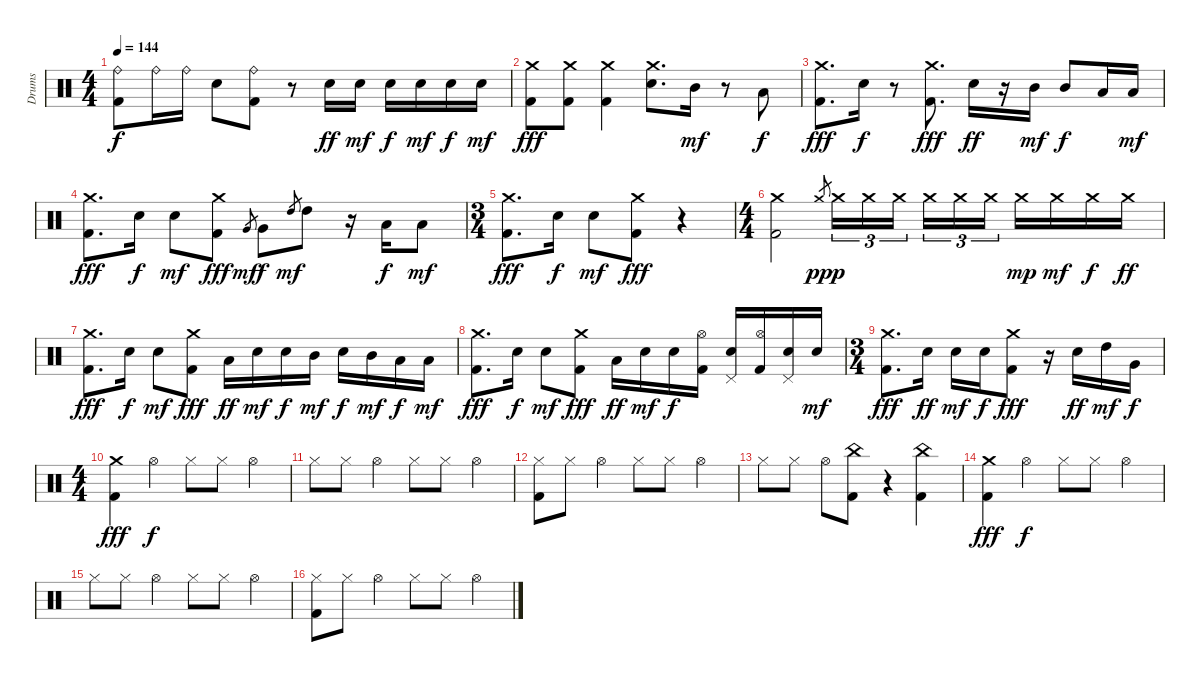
\bracketExtendMode groupsimilarinstruments
\otherSystemsTrackNameOrientation horizontal
\track ("Drumkit" "Drums") {instrument percussion}
\staff {score}
\articulation defaults
\ts (4 4)
\tempo 144
\clef neutral
\ks c
("Ride (bell)" "Kick (hit) 2").8{dy f beam Down} "Ride (bell)".16{beam Down} "Ride (bell)".16{beam Down} "Snare (hit) 2".8{beam Down} ("Ride (bell)" "Kick (hit) 2").8{beam Down} r.8{beam Down} "Snare (hit) 2".16{dy ff beam Down} "Snare (hit) 2".16{dy mf beam Down} "Snare (hit) 2".16{dy f beam Down} "Snare (hit) 2".16{dy mf beam Down} "Snare (hit) 2".16{dy f beam Down} "Snare (hit) 2".16{dy mf beam Down} |
("Crash medium (hit)" "Kick (hit) 2").8{dy fff beam Down} ("Crash medium (hit)" "Kick (hit) 2").8{beam Down} ("Crash medium (hit)" "Kick (hit) 2").4{beam Down} ("Crash medium (hit)" "Snare (hit) 2").8{d beam Down} "Mid Tom (hit)".16{dy mf beam Down} r.8{beam Down} "Low Tom (hit)".8{dy f beam Up} |
("Crash medium (hit)" "Kick (hit) 2").8{d dy fff beam Down} "Snare (hit) 2".16{dy f beam Down} r.8{beam Down} ("Crash medium (hit)" "Kick (hit) 2").8{d dy fff beam Down} "Snare (hit) 2".16{dy ff beam Down} r.16{beam Down} "Mid Tom (hit)".16{dy mf beam Down} "Mid Tom (hit)".8{dy f beam Up} "Low Tom (hit)".16{beam Up} "Low Tom (hit)".16{dy mf beam Up} |
("Crash medium (hit)" "Kick (hit) 2").8{d dy fff beam Down} "Snare (hit) 2".16{dy f beam Down} "Snare (hit) 2".8{dy mf beam Down} ("Crash medium (hit)" "Kick (hit) 2").8{dy fff beam Down} "Very Low Tom (hit)".8{gr dy mf beam Up} "Very Low Tom (hit)".8{dy f beam Down} "High Tom (hit)".8{gr dy mf beam Up} "High Tom (hit)".8{beam Down} r.16{beam Down} "Low Tom (hit)".16{dy f beam Up} "Low Tom (hit)".8{dy mf beam Up} |
\ts (3 4)
("Crash medium (hit)" "Kick (hit) 2").8{d dy fff beam Down} "Snare (hit) 2".16{dy f beam Down} "Snare (hit) 2".8{dy mf beam Down} ("Crash medium (hit)" "Kick (hit) 2").8{dy fff beam Down} r.4{beam Down} |
\ts (4 4)
("Crash medium (hit)" "Kick (hit) 2").2{beam Down} "Crash medium (hit)".8{gr dy pp beam Up} "Crash medium (hit)".16{tu (3 2) dy p beam Down} "Crash medium (hit)".16{tu (3 2) beam Down} "Crash medium (hit)".16{tu (3 2) beam Down} "Crash medium (hit)".16{tu (3 2) beam Down} "Crash medium (hit)".16{tu (3 2) beam Down} "Crash medium (hit)".16{tu (3 2) beam Down} "Crash medium (hit)".16{dy mp beam Down} "Crash medium (hit)".16{dy mf beam Down} "Crash medium (hit)".16{dy f beam Down} "Crash medium (hit)".16{dy ff beam Down} |
("Crash medium (hit)" "Kick (hit) 2").8{d dy fff beam Down} "Snare (hit) 2".16{dy f beam Down} "Snare (hit) 2".8{dy mf beam Down} ("Crash medium (hit)" "Kick (hit) 2").8{dy fff beam Down} "Low Tom (hit)".16{dy ff beam Down} "Snare (hit) 2".16{dy mf beam Down} "Snare (hit) 2".16{dy f beam Down} "Mid Tom (hit)".16{dy mf beam Down} "Snare (hit) 2".16{dy f beam Down} "Mid Tom (hit)".16{dy mf beam Down} "Low Tom (hit)".16{dy f beam Down} "Low Tom (hit)".16{dy mf beam Down} |
("Crash medium (hit)" "Kick (hit) 2").8{d dy fff beam Down} "Snare (hit) 2".16{dy f beam Down} "Snare (hit) 2".8{dy mf beam Down} ("Crash medium (hit)" "Kick (hit) 2").8{dy fff beam Down} "Low Tom (hit)".16{dy ff beam Down} "Snare (hit) 2".16{dy mf beam Down} "Snare (hit) 2".16{dy f beam Down} ("Hi-Hat (open)" "Kick (hit) 2").16{beam Down} ("Pedal Hi-Hat (hit)" "Snare (hit) 2").16{beam Up} ("Hi-Hat (open)" "Kick (hit) 2").16{beam Up} ("Pedal Hi-Hat (hit)" "Snare (hit) 2").16{beam Up} "Snare (hit) 2".16{dy mf beam Up} |
\ts (3 4)
("Crash medium (hit)" "Kick (hit) 2").8{d dy fff beam Down} "Snare (hit) 2".16{dy ff beam Down} "Snare (hit) 2".16{dy mf beam Down} "Snare (hit) 2".16{dy f beam Down} ("Crash medium (hit)" "Kick (hit) 2").8{dy fff beam Down} r.16{beam Down} "Snare (hit) 2".16{dy ff beam Down} "High Tom (hit)".16{dy mf beam Down} "Very Low Tom (hit)".16{dy f beam Down} |
\ts (4 4)
("Crash medium (hit)" "Kick (hit) 2").4{dy fff beam Down} "Hi-Hat (open)".4{dy f beam Down} "Hi-Hat (closed)".8{beam Down} "Hi-Hat (closed)".8{beam Down} "Hi-Hat (open)".4{beam Down} |
"Hi-Hat (closed)".8{beam Down} "Hi-Hat (closed)".8{beam Down} "Hi-Hat (open)".4{beam Down} "Hi-Hat (closed)".8{beam Down} "Hi-Hat (closed)".8{beam Down} "Hi-Hat (open)".4{beam Down} |
("Hi-Hat (closed)" "Kick (hit) 2").8{beam Down} "Hi-Hat (closed)".8{beam Down} "Hi-Hat (open)".4{beam Down} "Hi-Hat (closed)".8{beam Down} "Hi-Hat (closed)".8{beam Down} "Hi-Hat (open)".4{beam Down} |
"Hi-Hat (closed)".8{beam Down} "Hi-Hat (closed)".8{beam Down} "Hi-Hat (open)".8{beam Down} ("China (hit)" "Kick (hit) 2").8{beam Down} r.4{beam Down} ("China (hit)" "Kick (hit) 2").4{beam Down} |
("Crash medium (hit)" "Kick (hit) 2").4{dy fff beam Down} "Hi-Hat (open)".4{dy f beam Down} "Hi-Hat (closed)".8{beam Down} "Hi-Hat (closed)".8{beam Down} "Hi-Hat (open)".4{beam Down} |
"Hi-Hat (closed)".8{beam Down} "Hi-Hat (closed)".8{beam Down} "Hi-Hat (open)".4{beam Down} "Hi-Hat (closed)".8{beam Down} "Hi-Hat (closed)".8{beam Down} "Hi-Hat (open)".4{beam Down} |
("Hi-Hat (closed)" "Kick (hit) 2").8{beam Down} "Hi-Hat (closed)".8{beam Down} "Hi-Hat (open)".4{beam Down} "Hi-Hat (closed)".8{beam Down} "Hi-Hat (closed)".8{beam Down} "Hi-Hat (open)".4{beam Down}
